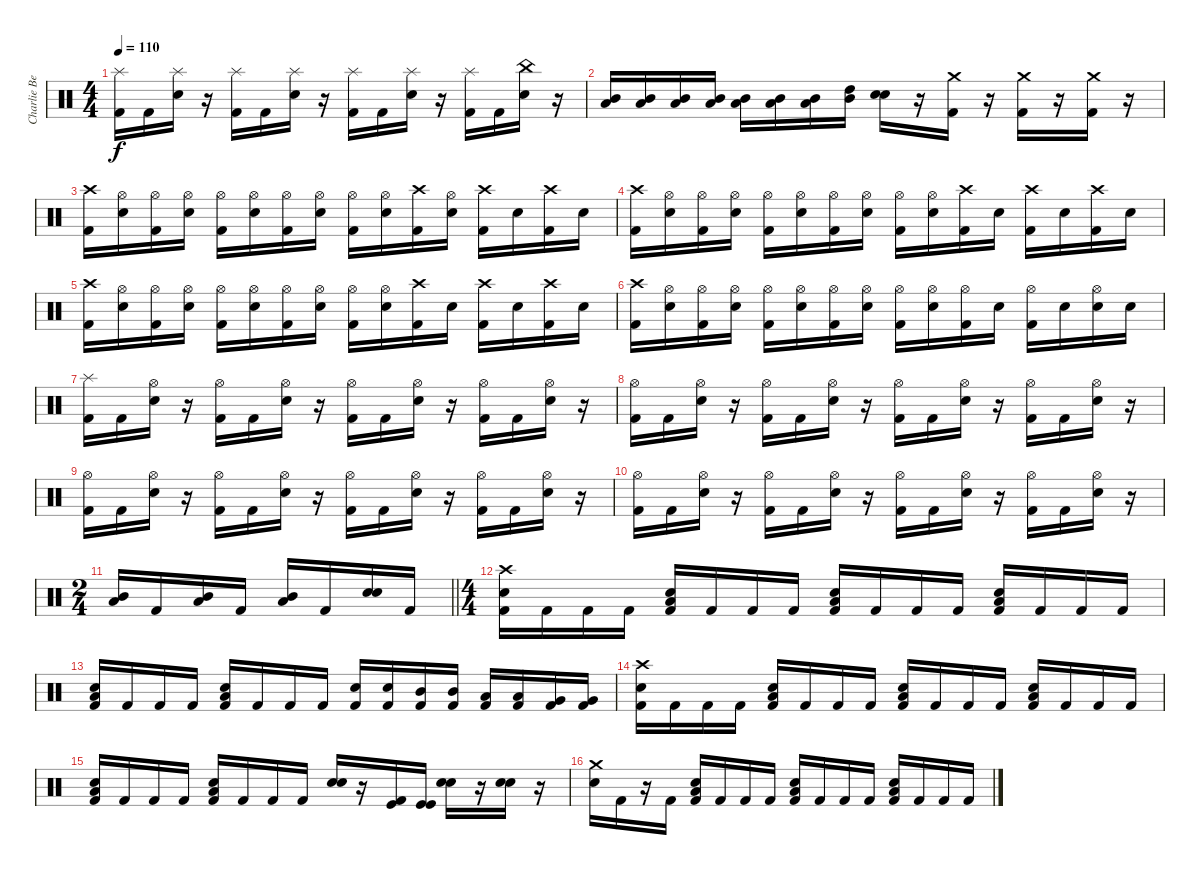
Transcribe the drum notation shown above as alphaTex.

\track ("Charlie Benante" "Charlie Be") {instrument percussion}
\staff {score}
\articulation defaults
\ts (4 4)
\tempo 110
\clef neutral
\ks c
("Splash (hit)" "Kick (hit) 2").16{dy f} "Kick (hit) 2".16 ("Splash (hit)" "Electric Snare (hit)").16 r.16 ("Splash (hit)" "Kick (hit) 2").16 "Kick (hit) 2".16 ("Splash (hit)" "Electric Snare (hit)").16 r.16 ("Splash (hit)" "Kick (hit) 2").16 "Kick (hit) 2".16 ("Splash (hit)" "Electric Snare (hit)").16 r.16 ("Splash (hit)" "Kick (hit) 2").16 "Kick (hit) 2".16 ("China (hit)" "Electric Snare (hit)").16 r.16 |
("Low Tom (hit)" "Mid Tom (hit)").16 ("Low Tom (hit)" "Mid Tom (hit)").16 ("Low Tom (hit)" "Mid Tom (hit)").16 ("Low Tom (hit)" "Mid Tom (hit)").16 ("Low Tom (hit)" "Mid Tom (hit)").16 ("Low Tom (hit)" "Mid Tom (hit)").16 ("Low Tom (hit)" "Mid Tom (hit)").16 ("Mid Tom (hit)" "High Tom (hit)").16 ("Electric Snare (hit)" "Snare (hit) 2").16 r.16 ("Crash medium (hit)" "Kick (hit) 2").16 r.16 ("Crash medium (hit)" "Kick (hit) 2").16 r.16 ("Crash medium (hit)" "Kick (hit) 2").16 r.16 |
("Crash high (hit)" "Kick (hit) 2").16 ("Hi-Hat (open)" "Electric Snare (hit)").16 ("Hi-Hat (open)" "Kick (hit) 2").16 ("Hi-Hat (open)" "Electric Snare (hit)").16 ("Hi-Hat (open)" "Kick (hit) 2").16 ("Hi-Hat (open)" "Electric Snare (hit)").16 ("Hi-Hat (open)" "Kick (hit) 2").16 ("Hi-Hat (open)" "Electric Snare (hit)").16 ("Hi-Hat (open)" "Kick (hit) 2").16 ("Hi-Hat (open)" "Electric Snare (hit)").16 ("Crash high (hit)" "Kick (hit) 2").16 ("Hi-Hat (open)" "Electric Snare (hit)").16 ("Crash high (hit)" "Kick (hit) 2").16 "Electric Snare (hit)".16 ("Crash high (hit)" "Kick (hit) 2").16 "Electric Snare (hit)".16 |
("Crash high (hit)" "Kick (hit) 2").16 ("Hi-Hat (open)" "Electric Snare (hit)").16 ("Hi-Hat (open)" "Kick (hit) 2").16 ("Hi-Hat (open)" "Electric Snare (hit)").16 ("Hi-Hat (open)" "Kick (hit) 2").16 ("Hi-Hat (open)" "Electric Snare (hit)").16 ("Hi-Hat (open)" "Kick (hit) 2").16 ("Hi-Hat (open)" "Electric Snare (hit)").16 ("Hi-Hat (open)" "Kick (hit) 2").16 ("Hi-Hat (open)" "Electric Snare (hit)").16 ("Crash high (hit)" "Kick (hit) 2").16 "Electric Snare (hit)".16 ("Crash high (hit)" "Kick (hit) 2").16 "Electric Snare (hit)".16 ("Crash high (hit)" "Kick (hit) 2").16 "Electric Snare (hit)".16 |
("Crash high (hit)" "Kick (hit) 2").16 ("Hi-Hat (open)" "Electric Snare (hit)").16 ("Hi-Hat (open)" "Kick (hit) 2").16 ("Hi-Hat (open)" "Electric Snare (hit)").16 ("Hi-Hat (open)" "Kick (hit) 2").16 ("Hi-Hat (open)" "Electric Snare (hit)").16 ("Hi-Hat (open)" "Kick (hit) 2").16 ("Hi-Hat (open)" "Electric Snare (hit)").16 ("Hi-Hat (open)" "Kick (hit) 2").16 ("Hi-Hat (open)" "Electric Snare (hit)").16 ("Crash high (hit)" "Kick (hit) 2").16 "Electric Snare (hit)".16 ("Crash high (hit)" "Kick (hit) 2").16 "Electric Snare (hit)".16 ("Crash high (hit)" "Kick (hit) 2").16 "Electric Snare (hit)".16 |
("Crash high (hit)" "Kick (hit) 2").16 ("Hi-Hat (open)" "Electric Snare (hit)").16 ("Hi-Hat (open)" "Kick (hit) 2").16 ("Hi-Hat (open)" "Electric Snare (hit)").16 ("Hi-Hat (open)" "Kick (hit) 2").16 ("Hi-Hat (open)" "Electric Snare (hit)").16 ("Hi-Hat (open)" "Kick (hit) 2").16 ("Hi-Hat (open)" "Electric Snare (hit)").16 ("Hi-Hat (open)" "Kick (hit) 2").16 ("Hi-Hat (open)" "Electric Snare (hit)").16 ("Hi-Hat (open)" "Kick (hit) 2").16 "Electric Snare (hit)".16 ("Hi-Hat (open)" "Kick (hit) 2").16 "Electric Snare (hit)".16 ("Hi-Hat (open)" "Electric Snare (hit)").16 "Electric Snare (hit)".16 |
("Splash (hit)" "Kick (hit) 2").16 "Kick (hit) 2".16 ("Hi-Hat (open)" "Electric Snare (hit)").16 r.16 ("Hi-Hat (open)" "Kick (hit) 2").16 "Kick (hit) 2".16 ("Hi-Hat (open)" "Electric Snare (hit)").16 r.16 ("Hi-Hat (open)" "Kick (hit) 2").16 "Kick (hit) 2".16 ("Hi-Hat (open)" "Electric Snare (hit)").16 r.16 ("Hi-Hat (open)" "Kick (hit) 2").16 "Kick (hit) 2".16 ("Hi-Hat (open)" "Electric Snare (hit)").16 r.16 |
("Hi-Hat (open)" "Kick (hit) 2").16 "Kick (hit) 2".16 ("Hi-Hat (open)" "Electric Snare (hit)").16 r.16 ("Hi-Hat (open)" "Kick (hit) 2").16 "Kick (hit) 2".16 ("Hi-Hat (open)" "Electric Snare (hit)").16 r.16 ("Hi-Hat (open)" "Kick (hit) 2").16 "Kick (hit) 2".16 ("Hi-Hat (open)" "Electric Snare (hit)").16 r.16 ("Hi-Hat (open)" "Kick (hit) 2").16 "Kick (hit) 2".16 ("Hi-Hat (open)" "Electric Snare (hit)").16 r.16 |
("Hi-Hat (open)" "Kick (hit) 2").16 "Kick (hit) 2".16 ("Hi-Hat (open)" "Electric Snare (hit)").16 r.16 ("Hi-Hat (open)" "Kick (hit) 2").16 "Kick (hit) 2".16 ("Hi-Hat (open)" "Electric Snare (hit)").16 r.16 ("Hi-Hat (open)" "Kick (hit) 2").16 "Kick (hit) 2".16 ("Hi-Hat (open)" "Electric Snare (hit)").16 r.16 ("Hi-Hat (open)" "Kick (hit) 2").16 "Kick (hit) 2".16 ("Hi-Hat (open)" "Electric Snare (hit)").16 r.16 |
("Hi-Hat (open)" "Kick (hit) 2").16 "Kick (hit) 2".16 ("Hi-Hat (open)" "Electric Snare (hit)").16 r.16 ("Hi-Hat (open)" "Kick (hit) 2").16 "Kick (hit) 2".16 ("Hi-Hat (open)" "Electric Snare (hit)").16 r.16 ("Hi-Hat (open)" "Kick (hit) 2").16 "Kick (hit) 2".16 ("Hi-Hat (open)" "Electric Snare (hit)").16 r.16 ("Hi-Hat (open)" "Kick (hit) 2").16 "Kick (hit) 2".16 ("Hi-Hat (open)" "Electric Snare (hit)").16 r.16 |
\ts (2 4)
\barLineRight lightlight
("Low Tom (hit)" "Mid Tom (hit)").16 "Kick (hit) 2".16 ("Low Tom (hit)" "Mid Tom (hit)").16 "Kick (hit) 2".16 ("Low Tom (hit)" "Mid Tom (hit)").16 "Kick (hit) 2".16 ("Snare (hit) 2" "Electric Snare (hit)").16 "Kick (hit) 2".16 |
\ts (4 4)
("Crash high (hit)" "Electric Snare (hit)" "Kick (hit) 2").16 "Kick (hit) 2".16 "Kick (hit) 2".16 "Kick (hit) 2".16 ("Low Floor Tom (hit)" "Electric Snare (hit)" "Kick (hit) 2").16 "Kick (hit) 2".16 "Kick (hit) 2".16 "Kick (hit) 2".16 ("Low Floor Tom (hit)" "Electric Snare (hit)" "Kick (hit) 2").16 "Kick (hit) 2".16 "Kick (hit) 2".16 "Kick (hit) 2".16 ("Low Floor Tom (hit)" "Electric Snare (hit)" "Kick (hit) 2").16 "Kick (hit) 2".16 "Kick (hit) 2".16 "Kick (hit) 2".16 |
("Low Floor Tom (hit)" "Electric Snare (hit)" "Kick (hit) 2").16 "Kick (hit) 2".16 "Kick (hit) 2".16 "Kick (hit) 2".16 ("Low Floor Tom (hit)" "Electric Snare (hit)" "Kick (hit) 2").16 "Kick (hit) 2".16 "Kick (hit) 2".16 "Kick (hit) 2".16 ("Electric Snare (hit)" "Kick (hit) 2").16 ("Electric Snare (hit)" "Kick (hit) 2").16 ("Mid Tom (hit)" "Kick (hit) 2").16 ("Mid Tom (hit)" "Kick (hit) 2").16 ("Low Tom (hit)" "Kick (hit) 2").16 ("Low Tom (hit)" "Kick (hit) 2").16 ("Very Low Tom (hit)" "Kick (hit) 2").16 ("Very Low Tom (hit)" "Kick (hit) 2").16 |
("Crash high (hit)" "Electric Snare (hit)" "Kick (hit) 2").16 "Kick (hit) 2".16 "Kick (hit) 2".16 "Kick (hit) 2".16 ("Low Floor Tom (hit)" "Electric Snare (hit)" "Kick (hit) 2").16 "Kick (hit) 2".16 "Kick (hit) 2".16 "Kick (hit) 2".16 ("Low Floor Tom (hit)" "Electric Snare (hit)" "Kick (hit) 2").16 "Kick (hit) 2".16 "Kick (hit) 2".16 "Kick (hit) 2".16 ("Low Floor Tom (hit)" "Electric Snare (hit)" "Kick (hit) 2").16 "Kick (hit) 2".16 "Kick (hit) 2".16 "Kick (hit) 2".16 |
("Low Floor Tom (hit)" "Electric Snare (hit)" "Kick (hit) 2").16 "Kick (hit) 2".16 "Kick (hit) 2".16 "Kick (hit) 2".16 ("Low Floor Tom (hit)" "Electric Snare (hit)" "Kick (hit) 2").16 "Kick (hit) 2".16 "Kick (hit) 2".16 "Kick (hit) 2".16 ("Snare (hit) 2" "Electric Snare (hit)").16 r.16 ("Kick (hit)" "Kick (hit) 2").16 ("Kick (hit)" "Kick (hit)").16 ("Snare (hit) 2" "Electric Snare (hit)").16 r.16 ("Snare (hit) 2" "Electric Snare (hit)").16 r.16 |
("Crash medium (hit)" "Electric Snare (hit)").16 "Kick (hit) 2".16 r.16 "Kick (hit) 2".16 ("Low Floor Tom (hit)" "Electric Snare (hit)" "Kick (hit) 2").16 "Kick (hit) 2".16 "Kick (hit) 2".16 "Kick (hit) 2".16 ("Low Floor Tom (hit)" "Electric Snare (hit)" "Kick (hit) 2").16 "Kick (hit) 2".16 "Kick (hit) 2".16 "Kick (hit) 2".16 ("Low Floor Tom (hit)" "Electric Snare (hit)" "Kick (hit) 2").16 "Kick (hit) 2".16 "Kick (hit) 2".16 "Kick (hit) 2".16
